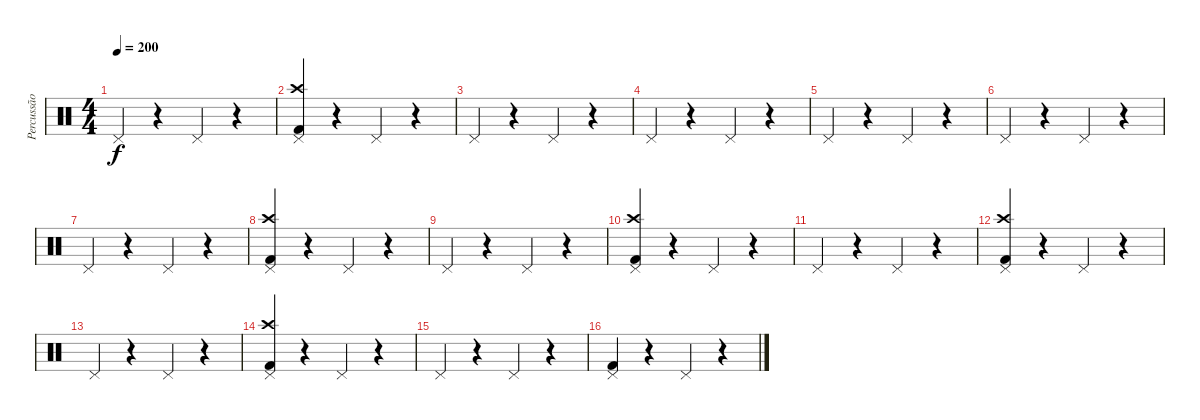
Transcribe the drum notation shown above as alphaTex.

\track ("Percussão" "Percussão") {instrument percussion}
\staff {score}
\articulation defaults
\ts (4 4)
\tempo 200
\clef neutral
\ks c "Pedal Hi-Hat (hit)".4{dy f}
r.4 "Pedal Hi-Hat (hit)".4 r.4 |
("Pedal Hi-Hat (hit)" "Crash high (hit)" "Kick (hit) 2").4 r.4 "Pedal Hi-Hat (hit)".4 r.4 |
"Pedal Hi-Hat (hit)".4 r.4 "Pedal Hi-Hat (hit)".4 r.4 |
"Pedal Hi-Hat (hit)".4 r.4 "Pedal Hi-Hat (hit)".4 r.4 |
"Pedal Hi-Hat (hit)".4 r.4 "Pedal Hi-Hat (hit)".4 r.4 |
"Pedal Hi-Hat (hit)".4 r.4 "Pedal Hi-Hat (hit)".4 r.4 |
"Pedal Hi-Hat (hit)".4 r.4 "Pedal Hi-Hat (hit)".4 r.4 |
("Pedal Hi-Hat (hit)" "Crash high (hit)" "Kick (hit) 2").4 r.4 "Pedal Hi-Hat (hit)".4 r.4 |
"Pedal Hi-Hat (hit)".4 r.4 "Pedal Hi-Hat (hit)".4 r.4 |
("Pedal Hi-Hat (hit)" "Crash high (hit)" "Kick (hit) 2").4 r.4 "Pedal Hi-Hat (hit)".4 r.4 |
"Pedal Hi-Hat (hit)".4 r.4 "Pedal Hi-Hat (hit)".4 r.4 |
("Pedal Hi-Hat (hit)" "Crash high (hit)" "Kick (hit) 2").4 r.4 "Pedal Hi-Hat (hit)".4 r.4 |
"Pedal Hi-Hat (hit)".4 r.4 "Pedal Hi-Hat (hit)".4 r.4 |
("Pedal Hi-Hat (hit)" "Crash high (hit)" "Kick (hit) 2").4 r.4 "Pedal Hi-Hat (hit)".4 r.4 |
"Pedal Hi-Hat (hit)".4 r.4 "Pedal Hi-Hat (hit)".4 r.4 |
("Pedal Hi-Hat (hit)" "Kick (hit) 2").4 r.4 "Pedal Hi-Hat (hit)".4 r.4
